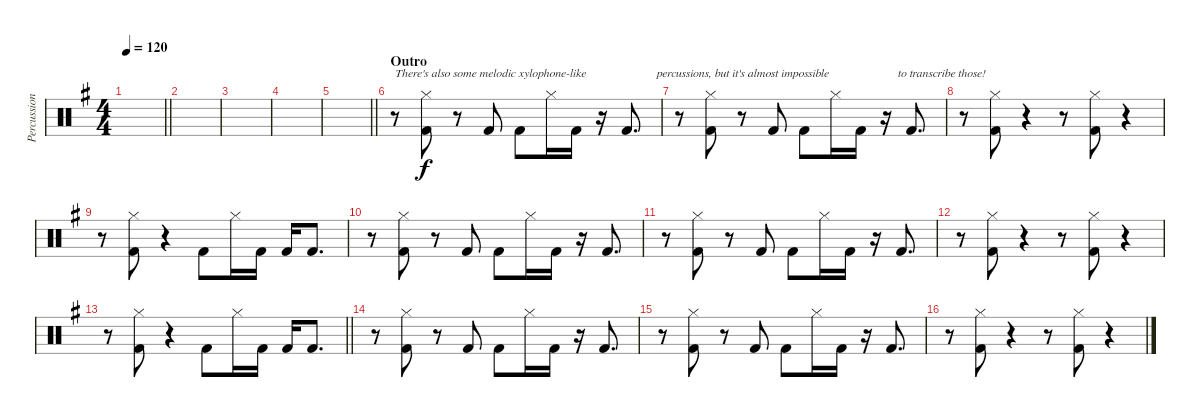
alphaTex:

\track ("Percussion" "Percussion") {instrument percussion}
\staff {score}
\articulation defaults
\ts (4 4)
\tempo 120
\clef neutral
\barLineRight lightlight
\ks eminor
|
|
|
|
\barLineRight lightlight
|
\section ("" "Outro")
r.8{txt "There's also some melodic xylophone-like" volume 7} ("Hi-Hat (closed)" "Kick (hit) 2").8 r.8 "Kick (hit) 2".8 "Kick (hit) 2".8 "Hi-Hat (closed)".16 "Kick (hit) 2".16 r.16 "Kick (hit) 2".8{d txt "          percussions, but it's almost impossible"} |
r.8 ("Hi-Hat (closed)" "Kick (hit) 2").8 r.8 "Kick (hit) 2".8 "Kick (hit) 2".8 "Hi-Hat (closed)".16 "Kick (hit) 2".16 r.16{txt "    to transcribe those!"} "Kick (hit) 2".8{d} |
r.8 ("Hi-Hat (closed)" "Kick (hit) 2").8 r.4 r.8 ("Hi-Hat (closed)" "Kick (hit) 2").8 r.4 |
r.8 ("Hi-Hat (closed)" "Kick (hit) 2").8 r.4 "Kick (hit) 2".8 "Hi-Hat (closed)".16 "Kick (hit) 2".16 "Kick (hit) 2".16 "Kick (hit) 2".8{d} |
r.8 ("Hi-Hat (closed)" "Kick (hit) 2").8 r.8 "Kick (hit) 2".8 "Kick (hit) 2".8 "Hi-Hat (closed)".16 "Kick (hit) 2".16 r.16 "Kick (hit) 2".8{d} |
r.8 ("Hi-Hat (closed)" "Kick (hit) 2").8 r.8 "Kick (hit) 2".8 "Kick (hit) 2".8 "Hi-Hat (closed)".16 "Kick (hit) 2".16 r.16 "Kick (hit) 2".8{d} |
r.8 ("Hi-Hat (closed)" "Kick (hit) 2").8 r.4 r.8 ("Hi-Hat (closed)" "Kick (hit) 2").8 r.4 |
\barLineRight lightlight
r.8 ("Hi-Hat (closed)" "Kick (hit) 2").8 r.4 "Kick (hit) 2".8 "Hi-Hat (closed)".16 "Kick (hit) 2".16 "Kick (hit) 2".16 "Kick (hit) 2".8{d} |
r.8 ("Hi-Hat (closed)" "Kick (hit) 2").8 r.8 "Kick (hit) 2".8 "Kick (hit) 2".8 "Hi-Hat (closed)".16 "Kick (hit) 2".16 r.16 "Kick (hit) 2".8{d} |
r.8 ("Hi-Hat (closed)" "Kick (hit) 2").8 r.8 "Kick (hit) 2".8 "Kick (hit) 2".8 "Hi-Hat (closed)".16 "Kick (hit) 2".16 r.16 "Kick (hit) 2".8{d} |
r.8 ("Hi-Hat (closed)" "Kick (hit) 2").8 r.4 r.8 ("Hi-Hat (closed)" "Kick (hit) 2").8 r.4
